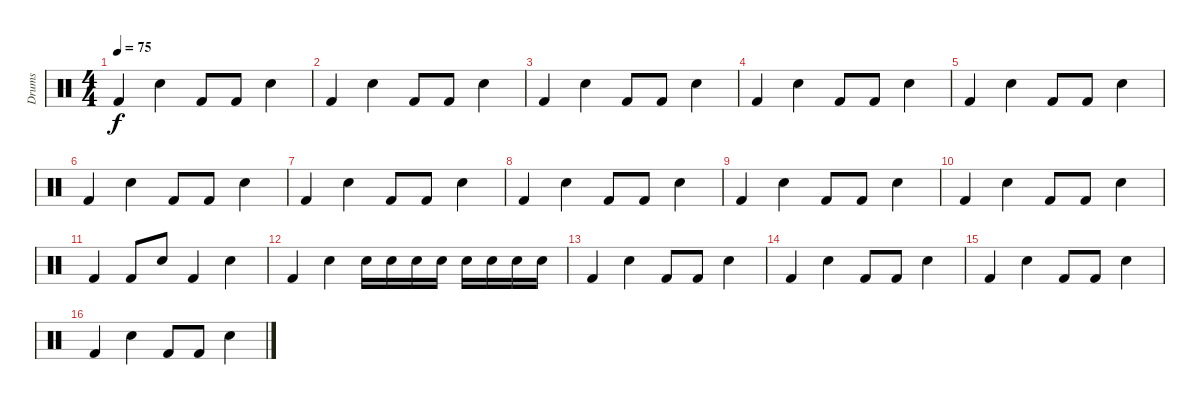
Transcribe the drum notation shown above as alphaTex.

\track ("Drums" "Drums") {instrument percussion}
\staff {score}
\articulation defaults
\ts (4 4)
\tempo 75
\clef neutral
\ks c "Kick (hit) 2".4{dy f} "Snare (hit) 2".4 "Kick (hit) 2".8 "Kick (hit) 2".8 "Snare (hit) 2".4
|
"Kick (hit) 2".4 "Snare (hit) 2".4 "Kick (hit) 2".8 "Kick (hit) 2".8 "Snare (hit) 2".4 |
"Kick (hit) 2".4 "Snare (hit) 2".4 "Kick (hit) 2".8 "Kick (hit) 2".8 "Snare (hit) 2".4 |
"Kick (hit) 2".4 "Snare (hit) 2".4 "Kick (hit) 2".8 "Kick (hit) 2".8 "Snare (hit) 2".4 |
"Kick (hit) 2".4 "Snare (hit) 2".4 "Kick (hit) 2".8 "Kick (hit) 2".8 "Snare (hit) 2".4 |
"Kick (hit) 2".4 "Snare (hit) 2".4 "Kick (hit) 2".8 "Kick (hit) 2".8 "Snare (hit) 2".4 |
"Kick (hit) 2".4 "Snare (hit) 2".4 "Kick (hit) 2".8 "Kick (hit) 2".8 "Snare (hit) 2".4 |
"Kick (hit) 2".4 "Snare (hit) 2".4 "Kick (hit) 2".8 "Kick (hit) 2".8 "Snare (hit) 2".4 |
"Kick (hit) 2".4 "Snare (hit) 2".4 "Kick (hit) 2".8 "Kick (hit) 2".8 "Snare (hit) 2".4 |
"Kick (hit) 2".4 "Snare (hit) 2".4 "Kick (hit) 2".8 "Kick (hit) 2".8 "Snare (hit) 2".4 |
"Kick (hit) 2".4 "Kick (hit) 2".8 "Snare (hit) 2".8 "Kick (hit) 2".4 "Snare (hit) 2".4 |
"Kick (hit) 2".4 "Snare (hit) 2".4 "Snare (hit) 2".16 "Snare (hit) 2".16 "Snare (hit) 2".16 "Snare (hit) 2".16 "Snare (hit) 2".16 "Snare (hit) 2".16 "Snare (hit) 2".16 "Snare (hit) 2".16 |
"Kick (hit) 2".4 "Snare (hit) 2".4 "Kick (hit) 2".8 "Kick (hit) 2".8 "Snare (hit) 2".4 |
"Kick (hit) 2".4 "Snare (hit) 2".4 "Kick (hit) 2".8 "Kick (hit) 2".8 "Snare (hit) 2".4 |
"Kick (hit) 2".4 "Snare (hit) 2".4 "Kick (hit) 2".8 "Kick (hit) 2".8 "Snare (hit) 2".4 |
"Kick (hit) 2".4 "Snare (hit) 2".4 "Kick (hit) 2".8 "Kick (hit) 2".8 "Snare (hit) 2".4
